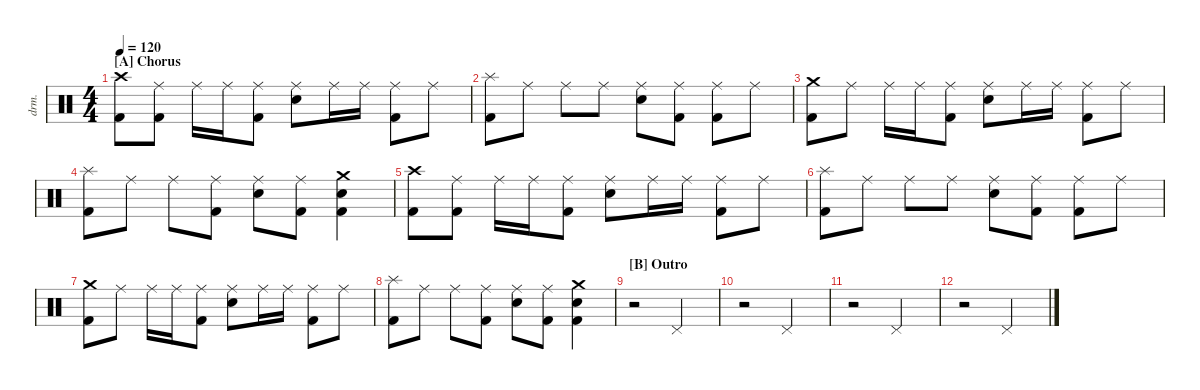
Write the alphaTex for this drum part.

\defaultSystemsLayout 4
\hideDynamics
\bracketExtendMode nobrackets
\track ("Drumkit" "drm.") {instrument percussion}
\staff {score}
\articulation defaults
\ts (4 4)
\section ("A" "Chorus")
\tempo 120
\clef neutral
\ks c
("Crash high (hit)" "Kick (hit) 2").8{dy f beam Down} ("Ride (middle)" "Kick (hit) 2").8{beam Down} "Ride (middle)".16{beam Down} "Ride (middle)".16{beam Down} ("Ride (middle)" "Kick (hit) 2").8{beam Down} ("Ride (middle)" "Snare (hit) 2").8{beam Down} "Ride (middle)".16{beam Down} "Ride (middle)".16{beam Down} ("Ride (middle)" "Kick (hit) 2").8{beam Down} "Ride (middle)".8{beam Down} |
("Kick (hit) 2" "Splash (hit)").8{beam Down} "Ride (middle)".8{beam Down} "Ride (middle)".8{beam Down} "Ride (middle)".8{beam Down} ("Ride (middle)" "Snare (hit) 2").8{beam Down} ("Ride (middle)" "Kick (hit) 2").8{beam Down} ("Ride (middle)" "Kick (hit) 2").8{beam Down} "Ride (middle)".8{beam Down} |
("Crash medium (hit)" "Kick (hit) 2").8{beam Down} "Ride (middle)".8{beam Down} "Ride (middle)".16{beam Down} "Ride (middle)".16{beam Down} ("Ride (middle)" "Kick (hit) 2").8{beam Down} ("Ride (middle)" "Snare (hit) 2").8{beam Down} "Ride (middle)".16{beam Down} "Ride (middle)".16{beam Down} ("Ride (middle)" "Kick (hit) 2").8{beam Down} "Ride (middle)".8{beam Down} |
("Kick (hit) 2" "Splash (hit)").8{beam Down} "Ride (middle)".8{beam Down} "Ride (middle)".8{beam Down} ("Ride (middle)" "Kick (hit) 2").8{beam Down} ("Ride (middle)" "Snare (hit) 2").8{beam Down} ("Ride (middle)" "Kick (hit) 2").8{beam Down} ("Crash medium (hit)" "Kick (hit) 2" "Snare (hit) 2").4{beam Down} |
("Crash high (hit)" "Kick (hit) 2").8{beam Down} ("Ride (middle)" "Kick (hit) 2").8{beam Down} "Ride (middle)".16{beam Down} "Ride (middle)".16{beam Down} ("Ride (middle)" "Kick (hit) 2").8{beam Down} ("Ride (middle)" "Snare (hit) 2").8{beam Down} "Ride (middle)".16{beam Down} "Ride (middle)".16{beam Down} ("Ride (middle)" "Kick (hit) 2").8{beam Down} "Ride (middle)".8{beam Down} |
("Kick (hit) 2" "Splash (hit)").8{beam Down} "Ride (middle)".8{beam Down} "Ride (middle)".8{beam Down} "Ride (middle)".8{beam Down} ("Ride (middle)" "Snare (hit) 2").8{beam Down} ("Ride (middle)" "Kick (hit) 2").8{beam Down} ("Ride (middle)" "Kick (hit) 2").8{beam Down} "Ride (middle)".8{beam Down} |
("Crash medium (hit)" "Kick (hit) 2").8{beam Down} "Ride (middle)".8{beam Down} "Ride (middle)".16{beam Down} "Ride (middle)".16{beam Down} ("Ride (middle)" "Kick (hit) 2").8{beam Down} ("Ride (middle)" "Snare (hit) 2").8{beam Down} "Ride (middle)".16{beam Down} "Ride (middle)".16{beam Down} ("Ride (middle)" "Kick (hit) 2").8{beam Down} "Ride (middle)".8{beam Down} |
("Kick (hit) 2" "Splash (hit)").8{beam Down} "Ride (middle)".8{beam Down} "Ride (middle)".8{beam Down} ("Ride (middle)" "Kick (hit) 2").8{beam Down} ("Ride (middle)" "Snare (hit) 2").8{beam Down} ("Ride (middle)" "Kick (hit) 2").8{beam Down} ("Crash medium (hit)" "Kick (hit) 2" "Snare (hit) 2").4{beam Down} |
\section ("B" "Outro")
r.2{beam Down} "Pedal Hi-Hat (hit)".2{dy mf beam Up} |
r.2{beam Down} "Pedal Hi-Hat (hit)".2{beam Up} |
r.2{beam Down} "Pedal Hi-Hat (hit)".2{beam Up} |
r.2{beam Down} "Pedal Hi-Hat (hit)".2{beam Up}
